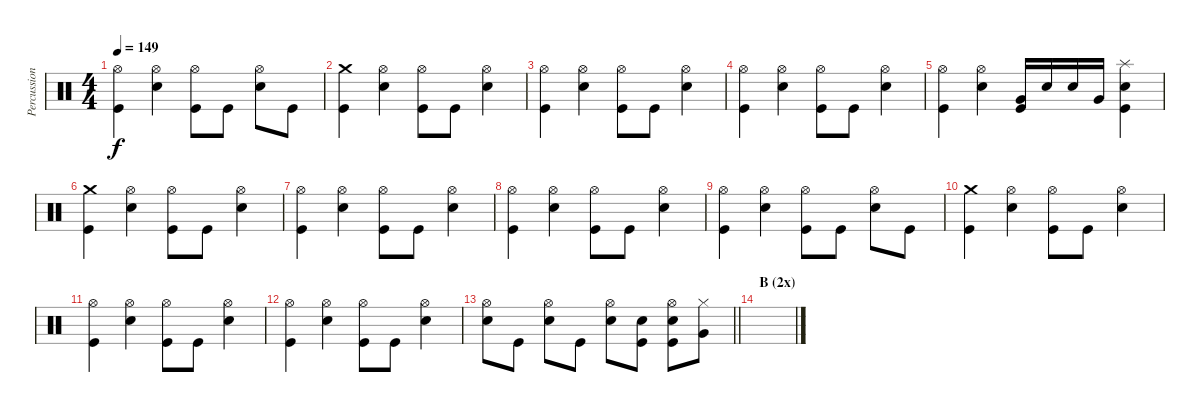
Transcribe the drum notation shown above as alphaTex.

\track ("Percussions" "Percussion") {instrument percussion}
\staff {score}
\articulation defaults
\ts (4 4)
\tempo 149
\clef neutral
\ks c
("Hi-Hat (open)" "Kick (hit)").4{dy f} ("Hi-Hat (open)" "Electric Snare (hit)").4 ("Hi-Hat (open)" "Kick (hit)").8 "Kick (hit)".8 ("Hi-Hat (open)" "Electric Snare (hit)").8 "Kick (hit)".8 |
("Crash medium (hit)" "Kick (hit)").4 ("Hi-Hat (open)" "Electric Snare (hit)").4 ("Hi-Hat (open)" "Kick (hit)").8 "Kick (hit)".8 ("Hi-Hat (open)" "Electric Snare (hit)").4 |
("Hi-Hat (open)" "Kick (hit)").4 ("Hi-Hat (open)" "Electric Snare (hit)").4 ("Hi-Hat (open)" "Kick (hit)").8 "Kick (hit)".8 ("Hi-Hat (open)" "Electric Snare (hit)").4 |
("Hi-Hat (open)" "Kick (hit)").4 ("Hi-Hat (open)" "Electric Snare (hit)").4 ("Hi-Hat (open)" "Kick (hit)").8 "Kick (hit)".8 ("Hi-Hat (open)" "Electric Snare (hit)").4 |
("Hi-Hat (open)" "Kick (hit)").4 ("Hi-Hat (open)" "Electric Snare (hit)").4 ("Very Low Tom (hit)" "Kick (hit)").16 "Electric Snare (hit)".16 "Electric Snare (hit)".16 "Very Low Tom (hit)".16 ("Splash (hit)" "Electric Snare (hit)" "Kick (hit)").4 |
("Crash medium (hit)" "Kick (hit)").4 ("Hi-Hat (open)" "Electric Snare (hit)").4 ("Hi-Hat (open)" "Kick (hit)").8 "Kick (hit)".8 ("Hi-Hat (open)" "Electric Snare (hit)").4 |
("Hi-Hat (open)" "Kick (hit)").4 ("Hi-Hat (open)" "Electric Snare (hit)").4 ("Hi-Hat (open)" "Kick (hit)").8 "Kick (hit)".8 ("Hi-Hat (open)" "Electric Snare (hit)").4 |
("Hi-Hat (open)" "Kick (hit)").4 ("Hi-Hat (open)" "Electric Snare (hit)").4 ("Hi-Hat (open)" "Kick (hit)").8 "Kick (hit)".8 ("Hi-Hat (open)" "Electric Snare (hit)").4 |
("Hi-Hat (open)" "Kick (hit)").4 ("Hi-Hat (open)" "Electric Snare (hit)").4 ("Hi-Hat (open)" "Kick (hit)").8 "Kick (hit)".8 ("Hi-Hat (open)" "Electric Snare (hit)").8 "Kick (hit)".8 |
("Crash medium (hit)" "Kick (hit)").4 ("Hi-Hat (open)" "Electric Snare (hit)").4 ("Hi-Hat (open)" "Kick (hit)").8 "Kick (hit)".8 ("Hi-Hat (open)" "Electric Snare (hit)").4 |
("Hi-Hat (open)" "Kick (hit)").4 ("Hi-Hat (open)" "Electric Snare (hit)").4 ("Hi-Hat (open)" "Kick (hit)").8 "Kick (hit)".8 ("Hi-Hat (open)" "Electric Snare (hit)").4 |
("Hi-Hat (open)" "Kick (hit)").4 ("Hi-Hat (open)" "Electric Snare (hit)").4 ("Hi-Hat (open)" "Kick (hit)").8 "Kick (hit)".8 ("Hi-Hat (open)" "Electric Snare (hit)").4 |
\barLineRight lightlight
("Hi-Hat (open)" "Electric Snare (hit)").8 "Kick (hit)".8 ("Hi-Hat (open)" "Electric Snare (hit)").8 "Kick (hit)".8 ("Hi-Hat (open)" "Electric Snare (hit)").8 ("Electric Snare (hit)" "Kick (hit)").8 ("Hi-Hat (open)" "Electric Snare (hit)" "Kick (hit)").8 ("Hi-Hat (closed)" "Very Low Tom (hit)").8 |
\section ("" "B (2x)")
